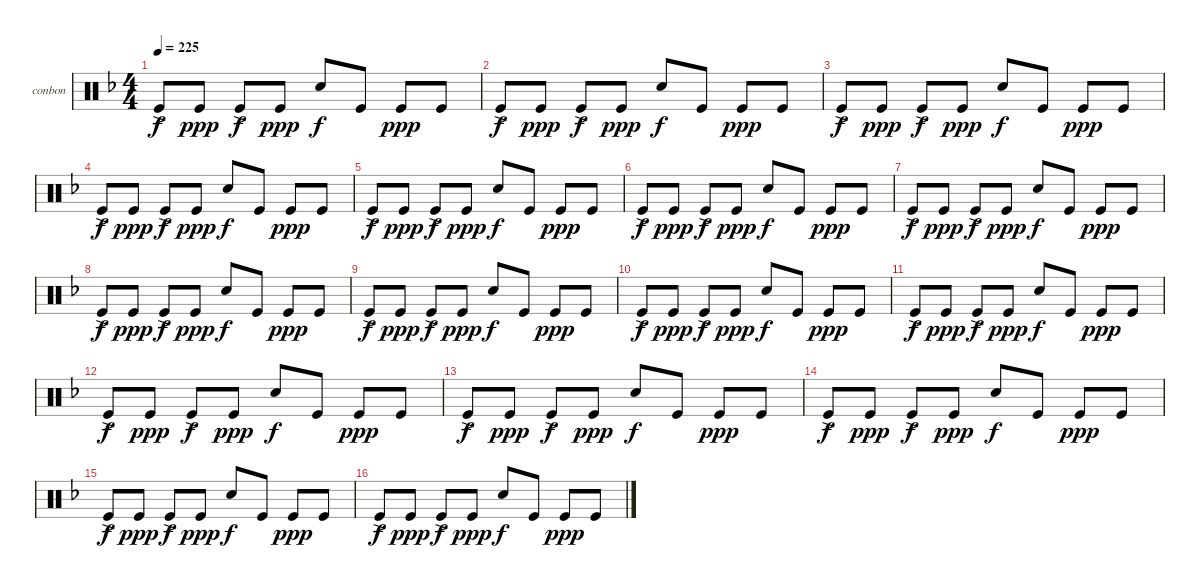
\defaultSystemsLayout 4
\bracketExtendMode groupsimilarinstruments
\firstSystemTrackNameOrientation horizontal
\otherSystemsTrackNameOrientation horizontal
\track ("Bongos N Congas" "conbon") {instrument percussion}
\staff {score}
\articulation defaults
\ts (4 4)
\tempo 225
\clef neutral
\scale
0.333333
\ks dminor "Kick (hit)"{ac}.8{dy f} "Kick (hit)".8{dy ppp} "Kick (hit)"{ac}.8{dy f} "Kick (hit)".8{dy ppp} "Snare (hit) 2".8{dy f} "Kick (hit)".8 "Kick (hit)".8{dy ppp} "Kick (hit)".8
|
\scale
0.333333 "Kick (hit)"{ac}.8{dy f} "Kick (hit)".8{dy ppp} "Kick (hit)"{ac}.8{dy f} "Kick (hit)".8{dy ppp} "Snare (hit) 2".8{dy f} "Kick (hit)".8 "Kick (hit)".8{dy ppp} "Kick (hit)".8 |
"Kick (hit)"{ac}.8{dy f} "Kick (hit)".8{dy ppp} "Kick (hit)"{ac}.8{dy f} "Kick (hit)".8{dy ppp} "Snare (hit) 2".8{dy f} "Kick (hit)".8 "Kick (hit)".8{dy ppp} "Kick (hit)".8 |
"Kick (hit)"{ac}.8{dy f} "Kick (hit)".8{dy ppp} "Kick (hit)"{ac}.8{dy f} "Kick (hit)".8{dy ppp} "Snare (hit) 2".8{dy f} "Kick (hit)".8 "Kick (hit)".8{dy ppp} "Kick (hit)".8 |
"Kick (hit)"{ac}.8{dy f} "Kick (hit)".8{dy ppp} "Kick (hit)"{ac}.8{dy f} "Kick (hit)".8{dy ppp} "Snare (hit) 2".8{dy f} "Kick (hit)".8 "Kick (hit)".8{dy ppp} "Kick (hit)".8 |
"Kick (hit)"{ac}.8{dy f} "Kick (hit)".8{dy ppp} "Kick (hit)"{ac}.8{dy f} "Kick (hit)".8{dy ppp} "Snare (hit) 2".8{dy f} "Kick (hit)".8 "Kick (hit)".8{dy ppp} "Kick (hit)".8 |
"Kick (hit)"{ac}.8{dy f} "Kick (hit)".8{dy ppp} "Kick (hit)"{ac}.8{dy f} "Kick (hit)".8{dy ppp} "Snare (hit) 2".8{dy f} "Kick (hit)".8 "Kick (hit)".8{dy ppp} "Kick (hit)".8 |
"Kick (hit)"{ac}.8{dy f} "Kick (hit)".8{dy ppp} "Kick (hit)"{ac}.8{dy f} "Kick (hit)".8{dy ppp} "Snare (hit) 2".8{dy f} "Kick (hit)".8 "Kick (hit)".8{dy ppp} "Kick (hit)".8 |
"Kick (hit)"{ac}.8{dy f} "Kick (hit)".8{dy ppp} "Kick (hit)"{ac}.8{dy f} "Kick (hit)".8{dy ppp} "Snare (hit) 2".8{dy f} "Kick (hit)".8 "Kick (hit)".8{dy ppp} "Kick (hit)".8 |
"Kick (hit)"{ac}.8{dy f} "Kick (hit)".8{dy ppp} "Kick (hit)"{ac}.8{dy f} "Kick (hit)".8{dy ppp} "Snare (hit) 2".8{dy f} "Kick (hit)".8 "Kick (hit)".8{dy ppp} "Kick (hit)".8 |
"Kick (hit)"{ac}.8{dy f} "Kick (hit)".8{dy ppp} "Kick (hit)"{ac}.8{dy f} "Kick (hit)".8{dy ppp} "Snare (hit) 2".8{dy f} "Kick (hit)".8 "Kick (hit)".8{dy ppp} "Kick (hit)".8 |
"Kick (hit)"{ac}.8{dy f} "Kick (hit)".8{dy ppp} "Kick (hit)"{ac}.8{dy f} "Kick (hit)".8{dy ppp} "Snare (hit) 2".8{dy f} "Kick (hit)".8 "Kick (hit)".8{dy ppp} "Kick (hit)".8 |
"Kick (hit)"{ac}.8{dy f} "Kick (hit)".8{dy ppp} "Kick (hit)"{ac}.8{dy f} "Kick (hit)".8{dy ppp} "Snare (hit) 2".8{dy f} "Kick (hit)".8 "Kick (hit)".8{dy ppp} "Kick (hit)".8 |
"Kick (hit)"{ac}.8{dy f} "Kick (hit)".8{dy ppp} "Kick (hit)"{ac}.8{dy f} "Kick (hit)".8{dy ppp} "Snare (hit) 2".8{dy f} "Kick (hit)".8 "Kick (hit)".8{dy ppp} "Kick (hit)".8 |
"Kick (hit)"{ac}.8{dy f} "Kick (hit)".8{dy ppp} "Kick (hit)"{ac}.8{dy f} "Kick (hit)".8{dy ppp} "Snare (hit) 2".8{dy f} "Kick (hit)".8 "Kick (hit)".8{dy ppp} "Kick (hit)".8 |
"Kick (hit)"{ac}.8{dy f} "Kick (hit)".8{dy ppp} "Kick (hit)"{ac}.8{dy f} "Kick (hit)".8{dy ppp} "Snare (hit) 2".8{dy f} "Kick (hit)".8 "Kick (hit)".8{dy ppp} "Kick (hit)".8
